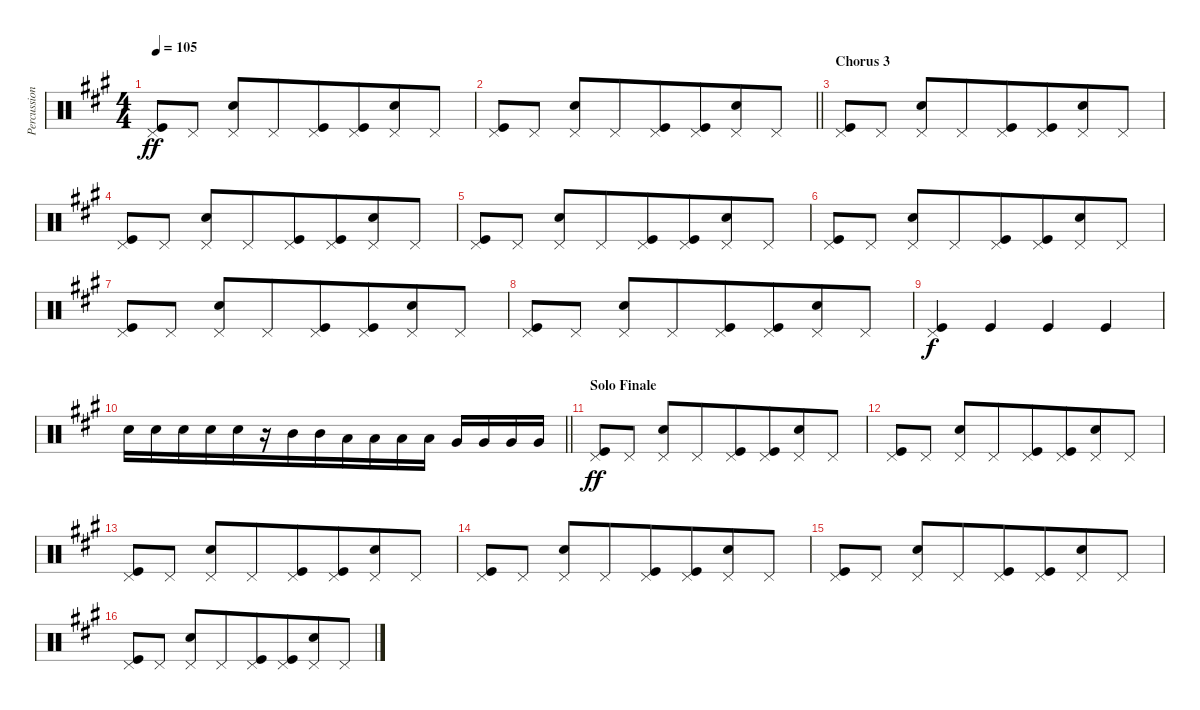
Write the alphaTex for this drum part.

\track ("Percussion" "Percussion") {instrument percussion}
\staff {score}
\articulation defaults
\ts (4 4)
\tempo 105
\clef neutral
\ks a
("Kick (hit)" "Pedal Hi-Hat (hit)").8{dy ff beam merge} "Pedal Hi-Hat (hit)".8 ("Electric Snare (hit)" "Pedal Hi-Hat (hit)").8 "Pedal Hi-Hat (hit)".8{beam merge} ("Kick (hit)" "Pedal Hi-Hat (hit)").8{beam merge} ("Kick (hit)" "Pedal Hi-Hat (hit)").8{beam merge} ("Electric Snare (hit)" "Pedal Hi-Hat (hit)").8{beam merge} "Pedal Hi-Hat (hit)".8 |
\barLineRight lightlight
("Kick (hit)" "Pedal Hi-Hat (hit)").8{beam merge} "Pedal Hi-Hat (hit)".8 ("Electric Snare (hit)" "Pedal Hi-Hat (hit)").8 "Pedal Hi-Hat (hit)".8{beam merge} ("Kick (hit)" "Pedal Hi-Hat (hit)").8{beam merge} ("Kick (hit)" "Pedal Hi-Hat (hit)").8{beam merge} ("Electric Snare (hit)" "Pedal Hi-Hat (hit)").8{beam merge} "Pedal Hi-Hat (hit)".8 |
\section ("" "Chorus 3")
("Kick (hit)" "Pedal Hi-Hat (hit)").8{beam merge} "Pedal Hi-Hat (hit)".8 ("Electric Snare (hit)" "Pedal Hi-Hat (hit)").8 "Pedal Hi-Hat (hit)".8{beam merge} ("Kick (hit)" "Pedal Hi-Hat (hit)").8{beam merge} ("Kick (hit)" "Pedal Hi-Hat (hit)").8{beam merge} ("Electric Snare (hit)" "Pedal Hi-Hat (hit)").8{beam merge} "Pedal Hi-Hat (hit)".8 |
("Kick (hit)" "Pedal Hi-Hat (hit)").8{beam merge} "Pedal Hi-Hat (hit)".8 ("Electric Snare (hit)" "Pedal Hi-Hat (hit)").8 "Pedal Hi-Hat (hit)".8{beam merge} ("Kick (hit)" "Pedal Hi-Hat (hit)").8{beam merge} ("Kick (hit)" "Pedal Hi-Hat (hit)").8{beam merge} ("Electric Snare (hit)" "Pedal Hi-Hat (hit)").8{beam merge} "Pedal Hi-Hat (hit)".8 |
("Kick (hit)" "Pedal Hi-Hat (hit)").8{beam merge} "Pedal Hi-Hat (hit)".8 ("Electric Snare (hit)" "Pedal Hi-Hat (hit)").8 "Pedal Hi-Hat (hit)".8{beam merge} ("Kick (hit)" "Pedal Hi-Hat (hit)").8{beam merge} ("Kick (hit)" "Pedal Hi-Hat (hit)").8{beam merge} ("Electric Snare (hit)" "Pedal Hi-Hat (hit)").8{beam merge} "Pedal Hi-Hat (hit)".8 |
("Kick (hit)" "Pedal Hi-Hat (hit)").8{beam merge} "Pedal Hi-Hat (hit)".8 ("Electric Snare (hit)" "Pedal Hi-Hat (hit)").8 "Pedal Hi-Hat (hit)".8{beam merge} ("Kick (hit)" "Pedal Hi-Hat (hit)").8{beam merge} ("Kick (hit)" "Pedal Hi-Hat (hit)").8{beam merge} ("Electric Snare (hit)" "Pedal Hi-Hat (hit)").8{beam merge} "Pedal Hi-Hat (hit)".8 |
("Kick (hit)" "Pedal Hi-Hat (hit)").8{beam merge} "Pedal Hi-Hat (hit)".8 ("Electric Snare (hit)" "Pedal Hi-Hat (hit)").8 "Pedal Hi-Hat (hit)".8{beam merge} ("Kick (hit)" "Pedal Hi-Hat (hit)").8{beam merge} ("Kick (hit)" "Pedal Hi-Hat (hit)").8{beam merge} ("Electric Snare (hit)" "Pedal Hi-Hat (hit)").8{beam merge} "Pedal Hi-Hat (hit)".8 |
("Kick (hit)" "Pedal Hi-Hat (hit)").8{beam merge} "Pedal Hi-Hat (hit)".8 ("Electric Snare (hit)" "Pedal Hi-Hat (hit)").8 "Pedal Hi-Hat (hit)".8{beam merge} ("Kick (hit)" "Pedal Hi-Hat (hit)").8{beam merge} ("Kick (hit)" "Pedal Hi-Hat (hit)").8{beam merge} ("Electric Snare (hit)" "Pedal Hi-Hat (hit)").8{beam merge} "Pedal Hi-Hat (hit)".8 |
("Kick (hit)" "Pedal Hi-Hat (hit)").4{dy f beam merge} "Kick (hit)".4 "Kick (hit)".4{beam merge} "Kick (hit)".4 |
\barLineRight lightlight "Electric Snare (hit)".16{beam merge} "Electric Snare (hit)".16 "Electric Snare (hit)".16 "Electric Snare (hit)".16{beam merge} "Electric Snare (hit)".16{beam merge}
r.16{beam merge} "Mid Tom (hit)".16 "Mid Tom (hit)".16{beam merge} "Low Tom (hit)".16{beam merge} "Low Tom (hit)".16 "Low Tom (hit)".16 "Low Tom (hit)".16 "Very Low Tom (hit)".16 "Very Low Tom (hit)".16 "Very Low Tom (hit)".16 "Very Low Tom (hit)".16 |
\section ("" "Solo Finale")
("Kick (hit)" "Pedal Hi-Hat (hit)").8{dy ff beam merge} "Pedal Hi-Hat (hit)".8 ("Electric Snare (hit)" "Pedal Hi-Hat (hit)").8 "Pedal Hi-Hat (hit)".8{beam merge} ("Kick (hit)" "Pedal Hi-Hat (hit)").8{beam merge} ("Kick (hit)" "Pedal Hi-Hat (hit)").8{beam merge} ("Electric Snare (hit)" "Pedal Hi-Hat (hit)").8{beam merge} "Pedal Hi-Hat (hit)".8 |
("Kick (hit)" "Pedal Hi-Hat (hit)").8{beam merge} "Pedal Hi-Hat (hit)".8 ("Electric Snare (hit)" "Pedal Hi-Hat (hit)").8 "Pedal Hi-Hat (hit)".8{beam merge} ("Kick (hit)" "Pedal Hi-Hat (hit)").8{beam merge} ("Kick (hit)" "Pedal Hi-Hat (hit)").8{beam merge} ("Electric Snare (hit)" "Pedal Hi-Hat (hit)").8{beam merge} "Pedal Hi-Hat (hit)".8 |
("Kick (hit)" "Pedal Hi-Hat (hit)").8{beam merge} "Pedal Hi-Hat (hit)".8 ("Electric Snare (hit)" "Pedal Hi-Hat (hit)").8 "Pedal Hi-Hat (hit)".8{beam merge} ("Kick (hit)" "Pedal Hi-Hat (hit)").8{beam merge} ("Kick (hit)" "Pedal Hi-Hat (hit)").8{beam merge} ("Electric Snare (hit)" "Pedal Hi-Hat (hit)").8{beam merge} "Pedal Hi-Hat (hit)".8 |
("Kick (hit)" "Pedal Hi-Hat (hit)").8{beam merge} "Pedal Hi-Hat (hit)".8 ("Electric Snare (hit)" "Pedal Hi-Hat (hit)").8 "Pedal Hi-Hat (hit)".8{beam merge} ("Kick (hit)" "Pedal Hi-Hat (hit)").8{beam merge} ("Kick (hit)" "Pedal Hi-Hat (hit)").8{beam merge} ("Electric Snare (hit)" "Pedal Hi-Hat (hit)").8{beam merge} "Pedal Hi-Hat (hit)".8 |
("Kick (hit)" "Pedal Hi-Hat (hit)").8{beam merge} "Pedal Hi-Hat (hit)".8 ("Electric Snare (hit)" "Pedal Hi-Hat (hit)").8 "Pedal Hi-Hat (hit)".8{beam merge} ("Kick (hit)" "Pedal Hi-Hat (hit)").8{beam merge} ("Kick (hit)" "Pedal Hi-Hat (hit)").8{beam merge} ("Electric Snare (hit)" "Pedal Hi-Hat (hit)").8{beam merge} "Pedal Hi-Hat (hit)".8 |
("Kick (hit)" "Pedal Hi-Hat (hit)").8{beam merge} "Pedal Hi-Hat (hit)".8 ("Electric Snare (hit)" "Pedal Hi-Hat (hit)").8 "Pedal Hi-Hat (hit)".8{beam merge} ("Kick (hit)" "Pedal Hi-Hat (hit)").8{beam merge} ("Kick (hit)" "Pedal Hi-Hat (hit)").8{beam merge} ("Electric Snare (hit)" "Pedal Hi-Hat (hit)").8{beam merge} "Pedal Hi-Hat (hit)".8
